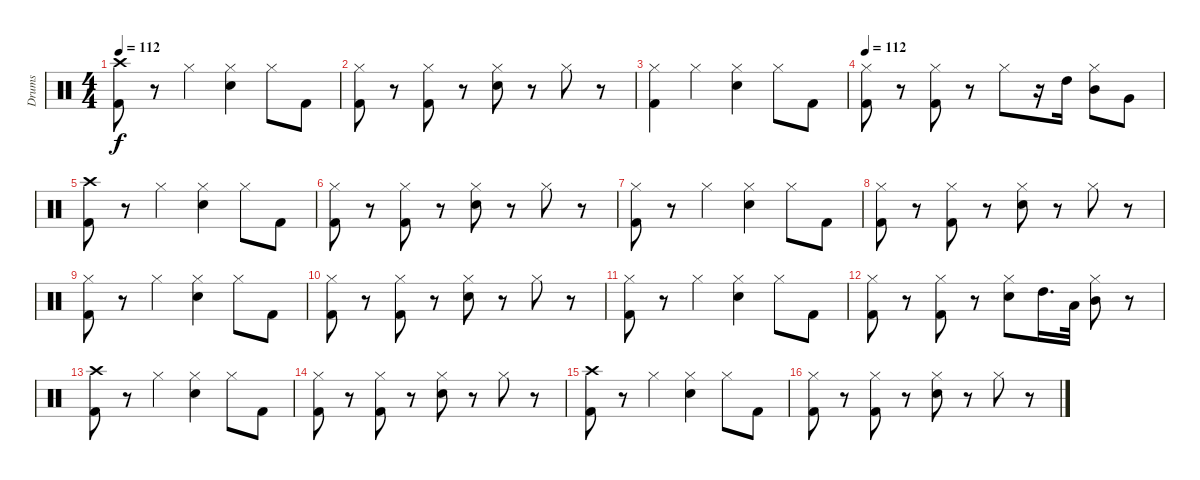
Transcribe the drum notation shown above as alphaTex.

\track ("Drums" "Drums") {instrument percussion}
\staff {score}
\articulation defaults
\ts (4 4)
\tempo 112
\clef neutral
\ks c
("Crash high (hit)" "Kick (hit) 2").8{dy f} r.8 "Hi-Hat (closed)".4 ("Electric Snare (hit)" "Hi-Hat (closed)").4 "Hi-Hat (closed)".8 "Kick (hit) 2".8 |
("Hi-Hat (closed)" "Kick (hit) 2").8 r.8 ("Hi-Hat (closed)" "Kick (hit) 2").8 r.8 ("Electric Snare (hit)" "Hi-Hat (closed)").8 r.8 "Hi-Hat (closed)".8 r.8 |
("Kick (hit) 2" "Hi-Hat (closed)").4 "Hi-Hat (closed)".4 ("Electric Snare (hit)" "Hi-Hat (closed)").4 "Hi-Hat (closed)".8 "Kick (hit) 2".8 |
\tempo 112
("Kick (hit) 2" "Hi-Hat (closed)").8 r.8 ("Hi-Hat (closed)" "Kick (hit) 2").8 r.8 "Hi-Hat (closed)".8 r.16 "High Tom (hit)".16 ("Hi-Hat (closed)" "Mid Tom (hit)").8 "Very Low Tom (hit)".8 |
("Crash high (hit)" "Kick (hit) 2").8 r.8 "Hi-Hat (closed)".4 ("Electric Snare (hit)" "Hi-Hat (closed)").4 "Hi-Hat (closed)".8 "Kick (hit) 2".8 |
("Kick (hit) 2" "Hi-Hat (closed)").8 r.8 ("Kick (hit) 2" "Hi-Hat (closed)").8 r.8 ("Electric Snare (hit)" "Hi-Hat (closed)").8 r.8 "Hi-Hat (closed)".8 r.8 |
("Kick (hit) 2" "Hi-Hat (closed)").8 r.8 "Hi-Hat (closed)".4 ("Hi-Hat (closed)" "Electric Snare (hit)").4 "Hi-Hat (closed)".8 "Kick (hit) 2".8 |
("Hi-Hat (closed)" "Kick (hit) 2").8 r.8 ("Hi-Hat (closed)" "Kick (hit) 2").8 r.8 ("Electric Snare (hit)" "Hi-Hat (closed)").8 r.8 "Hi-Hat (closed)".8 r.8 |
("Kick (hit) 2" "Hi-Hat (closed)").8 r.8 "Hi-Hat (closed)".4 ("Hi-Hat (closed)" "Electric Snare (hit)").4 "Hi-Hat (closed)".8 "Kick (hit) 2".8 |
("Hi-Hat (closed)" "Kick (hit) 2").8 r.8 ("Kick (hit) 2" "Hi-Hat (closed)").8 r.8 ("Hi-Hat (closed)" "Electric Snare (hit)").8 r.8 "Hi-Hat (closed)".8 r.8 |
("Hi-Hat (closed)" "Kick (hit) 2").8 r.8 "Hi-Hat (closed)".4 ("Electric Snare (hit)" "Hi-Hat (closed)").4 "Hi-Hat (closed)".8 "Kick (hit) 2".8 |
("Kick (hit) 2" "Hi-Hat (closed)").8 r.8 ("Kick (hit) 2" "Hi-Hat (closed)").8 r.8 ("Hi-Hat (closed)" "Electric Snare (hit)").8 "High Tom (hit)".16{d} "Low Tom (hit)".32 ("Hi-Hat (closed)" "Mid Tom (hit)").8 r.8 |
("Crash high (hit)" "Kick (hit) 2").8 r.8 "Hi-Hat (closed)".4 ("Hi-Hat (closed)" "Electric Snare (hit)").4 "Hi-Hat (closed)".8 "Kick (hit) 2".8 |
("Hi-Hat (closed)" "Kick (hit) 2").8 r.8 ("Hi-Hat (closed)" "Kick (hit) 2").8 r.8 ("Electric Snare (hit)" "Hi-Hat (closed)").8 r.8 "Hi-Hat (closed)".8 r.8 |
("Kick (hit) 2" "Crash high (hit)").8 r.8 "Hi-Hat (closed)".4 ("Hi-Hat (closed)" "Electric Snare (hit)").4 "Hi-Hat (closed)".8 "Kick (hit) 2".8 |
("Kick (hit) 2" "Hi-Hat (closed)").8 r.8 ("Hi-Hat (closed)" "Kick (hit) 2").8 r.8 ("Hi-Hat (closed)" "Electric Snare (hit)").8 r.8 "Hi-Hat (closed)".8 r.8
